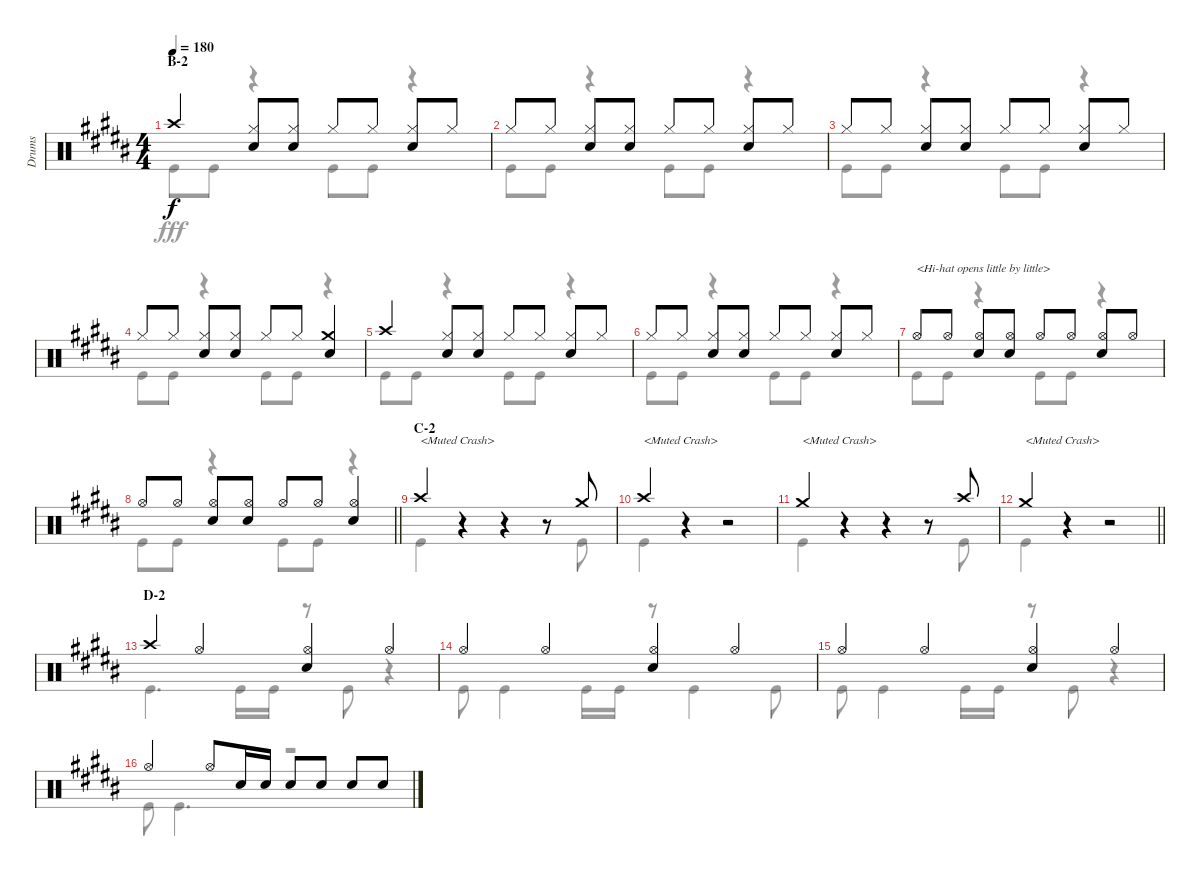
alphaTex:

\track ("Drums" "Drums") {instrument percussion}
\staff {score}
\articulation defaults
\voice
\ts (4 4)
\section ("" "B-2")
\tempo 180
\clef neutral
\ks b "Crash high (hit)".4{dy f}
("Hi-Hat (closed)" "Snare (hit) 2").8 ("Hi-Hat (closed)" "Snare (hit) 2").8 "Hi-Hat (closed)".8 "Hi-Hat (closed)".8 ("Hi-Hat (closed)" "Snare (hit) 2").8 "Hi-Hat (closed)".8 |
"Hi-Hat (closed)".8 "Hi-Hat (closed)".8 ("Hi-Hat (closed)" "Snare (hit) 2").8 ("Hi-Hat (closed)" "Snare (hit) 2").8 "Hi-Hat (closed)".8 "Hi-Hat (closed)".8 ("Hi-Hat (closed)" "Snare (hit) 2").8 "Hi-Hat (closed)".8 |
"Hi-Hat (closed)".8 "Hi-Hat (closed)".8 ("Hi-Hat (closed)" "Snare (hit) 2").8 ("Hi-Hat (closed)" "Snare (hit) 2").8 "Hi-Hat (closed)".8 "Hi-Hat (closed)".8 ("Hi-Hat (closed)" "Snare (hit) 2").8 "Hi-Hat (closed)".8 |
"Hi-Hat (closed)".8 "Hi-Hat (closed)".8 ("Hi-Hat (closed)" "Snare (hit) 2").8 ("Hi-Hat (closed)" "Snare (hit) 2").8 "Hi-Hat (closed)".8 "Hi-Hat (closed)".8 ("Crash medium (hit)" "Snare (hit) 2").4 |
"Crash high (hit)".4 ("Hi-Hat (closed)" "Snare (hit) 2").8 ("Hi-Hat (closed)" "Snare (hit) 2").8 "Hi-Hat (closed)".8 "Hi-Hat (closed)".8 ("Hi-Hat (closed)" "Snare (hit) 2").8 "Hi-Hat (closed)".8 |
"Hi-Hat (closed)".8 "Hi-Hat (closed)".8 ("Hi-Hat (closed)" "Snare (hit) 2").8 ("Hi-Hat (closed)" "Snare (hit) 2").8 "Hi-Hat (closed)".8 "Hi-Hat (closed)".8 ("Hi-Hat (closed)" "Snare (hit) 2").8 "Hi-Hat (closed)".8 |
"Hi-Hat (open)".8{txt "<Hi-hat opens little by little>"} "Hi-Hat (open)".8 ("Hi-Hat (open)" "Snare (hit) 2").8 ("Hi-Hat (open)" "Snare (hit) 2").8 "Hi-Hat (open)".8 "Hi-Hat (open)".8 ("Hi-Hat (open)" "Snare (hit) 2").8 "Hi-Hat (open)".8 |
\barLineRight lightlight "Hi-Hat (open)".8 "Hi-Hat (open)".8
("Hi-Hat (open)" "Snare (hit) 2").8 ("Hi-Hat (open)" "Snare (hit) 2").8 "Hi-Hat (open)".8 "Hi-Hat (open)".8 ("Hi-Hat (open)" "Snare (hit) 2").4 |
\section ("" "C-2")
"Crash high (hit)".4{txt "<Muted Crash>"} r.4 r.4 r.8 "Crash medium (hit)".8 |
"Crash high (hit)".4{txt "<Muted Crash>"} r.4 r.2 |
"Crash medium (hit)".4{txt "<Muted Crash>"} r.4 r.4 r.8 "Crash high (hit)".8 |
\barLineRight lightlight "Crash medium (hit)".4{txt "<Muted Crash>"}
r.4 r.2 |
\section ("" "D-2")
"Crash high (hit)".4 "Hi-Hat (open)".4 ("Hi-Hat (open)" "Snare (hit) 2").4 "Hi-Hat (open)".4 |
"Hi-Hat (open)".4 "Hi-Hat (open)".4 ("Hi-Hat (open)" "Snare (hit) 2").4 "Hi-Hat (open)".4 |
"Hi-Hat (open)".4 "Hi-Hat (open)".4 ("Hi-Hat (open)" "Snare (hit) 2").4 "Hi-Hat (open)".4 |
"Hi-Hat (open)".4 "Hi-Hat (open)".8 "Snare (hit) 2".16 "Snare (hit) 2".16 "Snare (hit) 2".8 "Snare (hit) 2".8 "Snare (hit) 2".8 "Snare (hit) 2".8
\voice
\clef neutral
\ottava regular
\simile none
\ks b "Kick (hit)".8{dy fff} "Kick (hit)".8
r.4 "Kick (hit)".8 "Kick (hit)".8 r.4 |
"Kick (hit)".8 "Kick (hit)".8 r.4 "Kick (hit)".8 "Kick (hit)".8 r.4 |
"Kick (hit)".8 "Kick (hit)".8 r.4 "Kick (hit)".8 "Kick (hit)".8 r.4 |
"Kick (hit)".8 "Kick (hit)".8 r.4 "Kick (hit)".8 "Kick (hit)".8 r.4 |
"Kick (hit)".8 "Kick (hit)".8 r.4 "Kick (hit)".8 "Kick (hit)".8 r.4 |
"Kick (hit)".8 "Kick (hit)".8 r.4 "Kick (hit)".8 "Kick (hit)".8 r.4 |
"Kick (hit)".8 "Kick (hit)".8 r.4 "Kick (hit)".8 "Kick (hit)".8 r.4 |
\barLineRight lightlight "Kick (hit)".8 "Kick (hit)".8
r.4 "Kick (hit)".8 "Kick (hit)".8 r.4 |
"Kick (hit)".4 r.4 r.4 r.8 "Kick (hit)".8 |
"Kick (hit)".4 r.4 r.2 |
"Kick (hit)".4 r.4 r.4 r.8 "Kick (hit)".8 |
\barLineRight lightlight "Kick (hit)".4
r.4 r.2 |
"Kick (hit)".4{d} "Kick (hit)".16 "Kick (hit)".16 r.8 "Kick (hit)".8 r.4 |
"Kick (hit)".8 "Kick (hit)".4 "Kick (hit)".16 "Kick (hit)".16 r.8 "Kick (hit)".4 "Kick (hit)".8 |
"Kick (hit)".8 "Kick (hit)".4 "Kick (hit)".16 "Kick (hit)".16 r.8 "Kick (hit)".8 r.4 |
"Kick (hit)".8 "Kick (hit)".4{d} r.2
